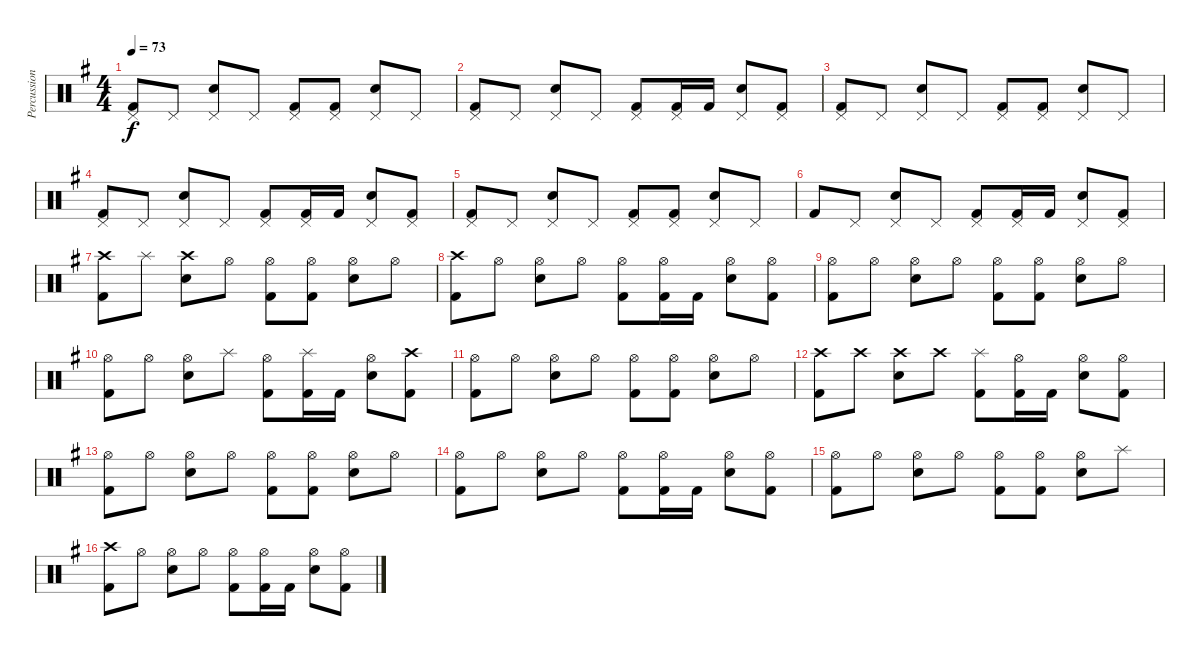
\track ("Percussions" "Percussion") {instrument percussion}
\staff {score}
\articulation defaults
\ts (4 4)
\tempo 73
\clef neutral
\ks g
("Pedal Hi-Hat (hit)" "Kick (hit) 2").8{dy f} "Pedal Hi-Hat (hit)".8 ("Pedal Hi-Hat (hit)" "Snare (hit) 2").8 "Pedal Hi-Hat (hit)".8 ("Pedal Hi-Hat (hit)" "Kick (hit) 2").8 ("Pedal Hi-Hat (hit)" "Kick (hit) 2").8 ("Pedal Hi-Hat (hit)" "Snare (hit) 2").8 "Pedal Hi-Hat (hit)".8 |
("Pedal Hi-Hat (hit)" "Kick (hit) 2").8 "Pedal Hi-Hat (hit)".8 ("Pedal Hi-Hat (hit)" "Snare (hit) 2").8 "Pedal Hi-Hat (hit)".8 ("Pedal Hi-Hat (hit)" "Kick (hit) 2").8 ("Pedal Hi-Hat (hit)" "Kick (hit) 2").16 "Kick (hit) 2".16 ("Pedal Hi-Hat (hit)" "Snare (hit) 2").8 ("Pedal Hi-Hat (hit)" "Kick (hit) 2").8 |
("Pedal Hi-Hat (hit)" "Kick (hit) 2").8 "Pedal Hi-Hat (hit)".8 ("Pedal Hi-Hat (hit)" "Snare (hit) 2").8 "Pedal Hi-Hat (hit)".8 ("Pedal Hi-Hat (hit)" "Kick (hit) 2").8 ("Pedal Hi-Hat (hit)" "Kick (hit) 2").8 ("Pedal Hi-Hat (hit)" "Snare (hit) 2").8 "Pedal Hi-Hat (hit)".8 |
("Pedal Hi-Hat (hit)" "Kick (hit) 2").8 "Pedal Hi-Hat (hit)".8 ("Pedal Hi-Hat (hit)" "Snare (hit) 2").8 "Pedal Hi-Hat (hit)".8 ("Pedal Hi-Hat (hit)" "Kick (hit) 2").8 ("Pedal Hi-Hat (hit)" "Kick (hit) 2").16 "Kick (hit) 2".16 ("Pedal Hi-Hat (hit)" "Snare (hit) 2").8 ("Pedal Hi-Hat (hit)" "Kick (hit) 2").8 |
("Pedal Hi-Hat (hit)" "Kick (hit) 2").8 "Pedal Hi-Hat (hit)".8 ("Pedal Hi-Hat (hit)" "Snare (hit) 2").8 "Pedal Hi-Hat (hit)".8 ("Pedal Hi-Hat (hit)" "Kick (hit) 2").8 ("Pedal Hi-Hat (hit)" "Kick (hit) 2").8 ("Pedal Hi-Hat (hit)" "Snare (hit) 2").8 "Pedal Hi-Hat (hit)".8 |
"Kick (hit) 2".8 "Pedal Hi-Hat (hit)".8 ("Pedal Hi-Hat (hit)" "Snare (hit) 2").8 "Pedal Hi-Hat (hit)".8 ("Pedal Hi-Hat (hit)" "Kick (hit) 2").8 ("Pedal Hi-Hat (hit)" "Kick (hit) 2").16 "Kick (hit) 2".16 ("Pedal Hi-Hat (hit)" "Snare (hit) 2").8 ("Pedal Hi-Hat (hit)" "Kick (hit) 2").8 |
("Crash high (hit)" "Kick (hit) 2").8 "Splash (hit)".8 ("Crash high (hit)" "Snare (hit) 2").8 "Hi-Hat (open)".8 ("Hi-Hat (open)" "Kick (hit) 2").8 ("Hi-Hat (open)" "Kick (hit) 2").8 ("Hi-Hat (open)" "Snare (hit) 2").8 "Hi-Hat (open)".8 |
("Crash high (hit)" "Kick (hit) 2").8 "Hi-Hat (open)".8 ("Hi-Hat (open)" "Snare (hit) 2").8 "Hi-Hat (open)".8 ("Hi-Hat (open)" "Kick (hit) 2").8 ("Hi-Hat (open)" "Kick (hit) 2").16 "Kick (hit) 2".16 ("Hi-Hat (open)" "Snare (hit) 2").8 ("Hi-Hat (open)" "Kick (hit) 2").8 |
("Hi-Hat (open)" "Kick (hit) 2").8 "Hi-Hat (open)".8 ("Hi-Hat (open)" "Snare (hit) 2").8 "Hi-Hat (open)".8 ("Hi-Hat (open)" "Kick (hit) 2").8 ("Hi-Hat (open)" "Kick (hit) 2").8 ("Hi-Hat (open)" "Snare (hit) 2").8 "Hi-Hat (open)".8 |
("Hi-Hat (open)" "Kick (hit) 2").8 "Hi-Hat (open)".8 ("Hi-Hat (open)" "Snare (hit) 2").8 "Splash (hit)".8 ("Hi-Hat (open)" "Kick (hit) 2").8 ("Splash (hit)" "Kick (hit) 2").16 "Kick (hit) 2".16 ("Hi-Hat (open)" "Snare (hit) 2").8 ("Crash high (hit)" "Kick (hit) 2").8 |
("Hi-Hat (open)" "Kick (hit) 2").8 "Hi-Hat (open)".8 ("Hi-Hat (open)" "Snare (hit) 2").8 "Hi-Hat (open)".8 ("Hi-Hat (open)" "Kick (hit) 2").8 ("Hi-Hat (open)" "Kick (hit) 2").8 ("Hi-Hat (open)" "Snare (hit) 2").8 "Hi-Hat (open)".8 |
("Crash high (hit)" "Kick (hit) 2").8 "Crash high (hit)".8 ("Crash high (hit)" "Snare (hit) 2").8 "Crash high (hit)".8 ("Splash (hit)" "Kick (hit) 2").8 ("Hi-Hat (open)" "Kick (hit) 2").16 "Kick (hit) 2".16 ("Hi-Hat (open)" "Snare (hit) 2").8 ("Hi-Hat (open)" "Kick (hit) 2").8 |
("Hi-Hat (open)" "Kick (hit) 2").8 "Hi-Hat (open)".8 ("Hi-Hat (open)" "Snare (hit) 2").8 "Hi-Hat (open)".8 ("Hi-Hat (open)" "Kick (hit) 2").8 ("Hi-Hat (open)" "Kick (hit) 2").8 ("Hi-Hat (open)" "Snare (hit) 2").8 "Hi-Hat (open)".8 |
("Hi-Hat (open)" "Kick (hit) 2").8 "Hi-Hat (open)".8 ("Hi-Hat (open)" "Snare (hit) 2").8 "Hi-Hat (open)".8 ("Hi-Hat (open)" "Kick (hit) 2").8 ("Hi-Hat (open)" "Kick (hit) 2").16 "Kick (hit) 2".16 ("Hi-Hat (open)" "Snare (hit) 2").8 ("Hi-Hat (open)" "Kick (hit) 2").8 |
("Hi-Hat (open)" "Kick (hit) 2").8 "Hi-Hat (open)".8 ("Hi-Hat (open)" "Snare (hit) 2").8 "Hi-Hat (open)".8 ("Hi-Hat (open)" "Kick (hit) 2").8 ("Hi-Hat (open)" "Kick (hit) 2").8 ("Hi-Hat (open)" "Snare (hit) 2").8 "Splash (hit)".8 |
("Crash high (hit)" "Kick (hit) 2").8 "Hi-Hat (open)".8 ("Hi-Hat (open)" "Snare (hit) 2").8 "Hi-Hat (open)".8 ("Hi-Hat (open)" "Kick (hit) 2").8 ("Hi-Hat (open)" "Kick (hit) 2").16 "Kick (hit) 2".16 ("Hi-Hat (open)" "Snare (hit) 2").8 ("Hi-Hat (open)" "Kick (hit) 2").8
